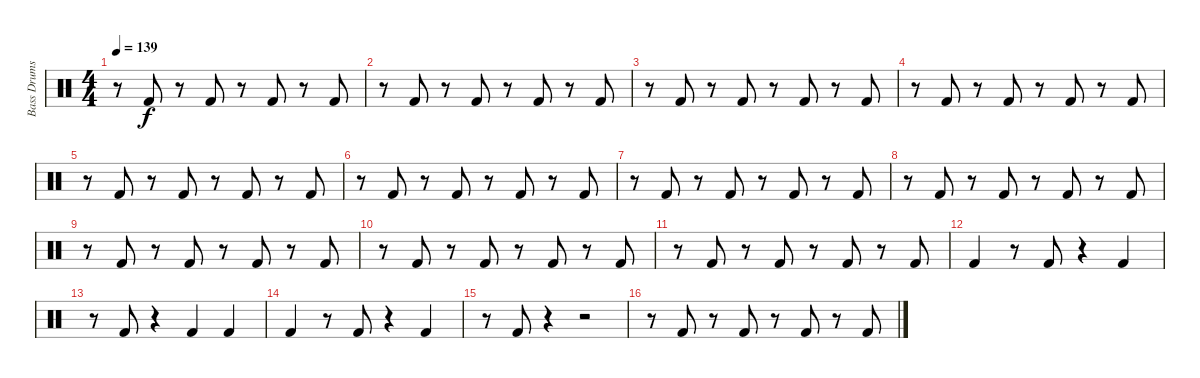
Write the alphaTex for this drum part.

\track ("Bass Drums" "Bass Drums") {instrument percussion}
\staff {score}
\articulation defaults
\ts (4 4)
\tempo 139
\clef neutral
\ks c
r.8{dy f} "Kick (hit) 2".8 r.8 "Kick (hit) 2".8 r.8 "Kick (hit) 2".8 r.8 "Kick (hit) 2".8 |
r.8 "Kick (hit) 2".8 r.8 "Kick (hit) 2".8 r.8 "Kick (hit) 2".8 r.8 "Kick (hit) 2".8 |
r.8 "Kick (hit) 2".8 r.8 "Kick (hit) 2".8 r.8 "Kick (hit) 2".8 r.8 "Kick (hit) 2".8 |
r.8 "Kick (hit) 2".8 r.8 "Kick (hit) 2".8 r.8 "Kick (hit) 2".8 r.8 "Kick (hit) 2".8 |
r.8 "Kick (hit) 2".8 r.8 "Kick (hit) 2".8 r.8 "Kick (hit) 2".8 r.8 "Kick (hit) 2".8 |
r.8 "Kick (hit) 2".8 r.8 "Kick (hit) 2".8 r.8 "Kick (hit) 2".8 r.8 "Kick (hit) 2".8 |
r.8 "Kick (hit) 2".8 r.8 "Kick (hit) 2".8 r.8 "Kick (hit) 2".8 r.8 "Kick (hit) 2".8 |
r.8 "Kick (hit) 2".8 r.8 "Kick (hit) 2".8 r.8 "Kick (hit) 2".8 r.8 "Kick (hit) 2".8 |
r.8 "Kick (hit) 2".8 r.8 "Kick (hit) 2".8 r.8 "Kick (hit) 2".8 r.8 "Kick (hit) 2".8 |
r.8 "Kick (hit) 2".8 r.8 "Kick (hit) 2".8 r.8 "Kick (hit) 2".8 r.8 "Kick (hit) 2".8 |
r.8 "Kick (hit) 2".8 r.8 "Kick (hit) 2".8 r.8 "Kick (hit) 2".8 r.8 "Kick (hit) 2".8 |
"Kick (hit) 2".4 r.8 "Kick (hit) 2".8 r.4 "Kick (hit) 2".4 |
r.8 "Kick (hit) 2".8 r.4 "Kick (hit) 2".4 "Kick (hit) 2".4 |
"Kick (hit) 2".4 r.8 "Kick (hit) 2".8 r.4 "Kick (hit) 2".4 |
r.8 "Kick (hit) 2".8 r.4 r.2 |
r.8 "Kick (hit) 2".8 r.8 "Kick (hit) 2".8 r.8 "Kick (hit) 2".8 r.8 "Kick (hit) 2".8
